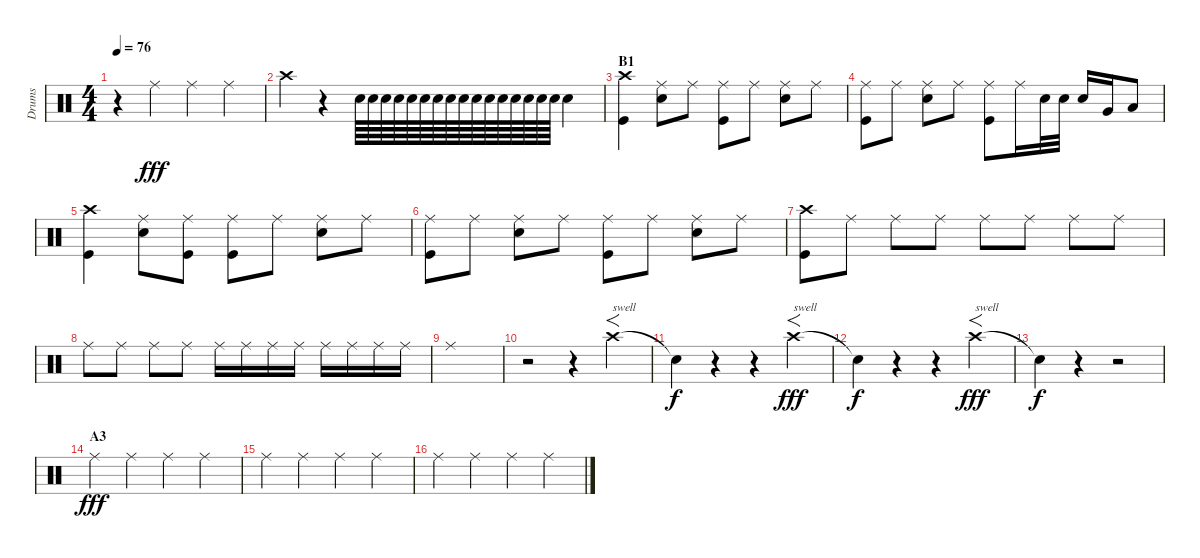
\track ("Drums" "Drums") {instrument percussion}
\staff {score}
\articulation defaults
\ts (4 4)
\tempo 76
\clef neutral
\ks c
r.4{dy fff} "Ride (middle)".4 "Ride (middle)".4 "Ride (middle)".4 |
"Crash high (hit)".4 r.4 "Snare (hit) 2".64 "Snare (hit) 2".64 "Snare (hit) 2".64 "Snare (hit) 2".64 "Snare (hit) 2".64 "Snare (hit) 2".64 "Snare (hit) 2".64 "Snare (hit) 2".64 "Snare (hit) 2".64 "Snare (hit) 2".64 "Snare (hit) 2".64 "Snare (hit) 2".64 "Snare (hit) 2".64 "Snare (hit) 2".64 "Snare (hit) 2".64 "Snare (hit) 2".64 "Snare (hit) 2".4 |
\section ("" "B1")
("Crash high (hit)" "Kick (hit)").4 ("Ride (middle)" "Snare (hit) 2").8 "Ride (middle)".8 ("Ride (middle)" "Kick (hit)").8 "Ride (middle)".8 ("Ride (middle)" "Snare (hit) 2").8 "Ride (middle)".8 |
("Ride (middle)" "Kick (hit)").8 "Ride (middle)".8 ("Ride (middle)" "Snare (hit) 2").8 "Ride (middle)".8 ("Ride (middle)" "Kick (hit)").8 "Ride (middle)".16 "Snare (hit) 2".32 "Snare (hit) 2".32 "Snare (hit) 2".16 "Very Low Tom (hit)".16 "Low Tom (hit)".8 |
("Crash high (hit)" "Kick (hit)").4 ("Ride (middle)" "Snare (hit) 2").8 ("Ride (middle)" "Kick (hit)").8 ("Ride (middle)" "Kick (hit)").8 "Ride (middle)".8 ("Ride (middle)" "Snare (hit) 2").8 "Ride (middle)".8 |
("Ride (middle)" "Kick (hit)").8 "Ride (middle)".8 ("Ride (middle)" "Snare (hit) 2").8 "Ride (middle)".8 ("Ride (middle)" "Kick (hit)").8 "Ride (middle)".8 ("Ride (middle)" "Snare (hit) 2").8 "Ride (middle)".8 |
("Crash high (hit)" "Kick (hit)").8 "Ride (middle)".8 "Ride (middle)".8 "Ride (middle)".8 "Ride (middle)".8 "Ride (middle)".8 "Ride (middle)".8 "Ride (middle)".8 |
"Ride (middle)".8 "Ride (middle)".8 "Ride (middle)".8 "Ride (middle)".8 "Ride (middle)".16 "Ride (middle)".16 "Ride (middle)".16 "Ride (middle)".16 "Ride (middle)".16 "Ride (middle)".16 "Ride (middle)".16 "Ride (middle)".16 |
"Ride (middle)".1 |
r.2 r.4 "Crash high (hit)".4{f txt "swell"} |
"Snare (hit)"{t}.4{dy f} r.4 r.4 "Crash high (hit)".4{f txt "swell" dy fff} |
"Snare (hit)"{t}.4{dy f} r.4 r.4 "Crash high (hit)".4{f txt "swell" dy fff} |
"Snare (hit)"{t}.4{dy f} r.4 r.2 |
\section ("" "A3")
"Ride (middle)".4{dy fff} "Ride (middle)".4 "Ride (middle)".4 "Ride (middle)".4 |
"Ride (middle)".4 "Ride (middle)".4 "Ride (middle)".4 "Ride (middle)".4 |
"Ride (middle)".4 "Ride (middle)".4 "Ride (middle)".4 "Ride (middle)".4
